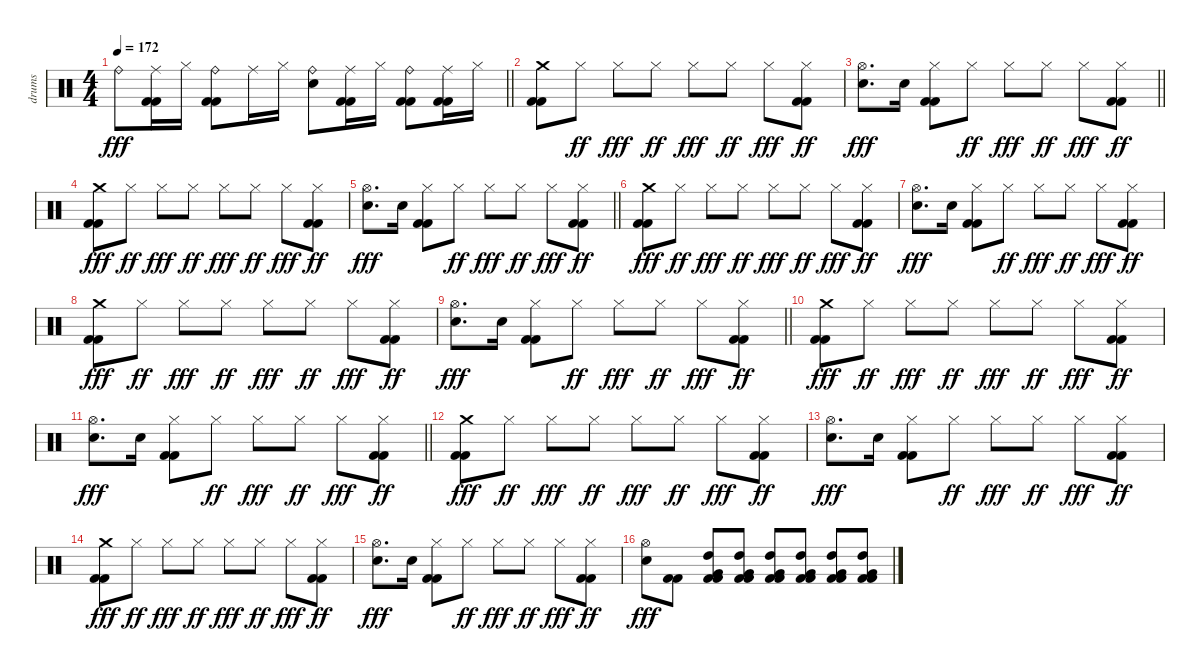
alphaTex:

\track ("drums" "drums") {instrument percussion}
\staff {score}
\articulation defaults
\ts (4 4)
\tempo 172
\clef neutral
\barLineRight lightlight
\ks c "Ride (bell)".8{dy fff}
("Kick (hit) 2" "Kick (hit) 2" "Ride (middle)").16 "Hi-Hat (closed)".16 ("Kick (hit) 2" "Kick (hit) 2" "Ride (bell)").8 "Ride (middle)".16 "Hi-Hat (closed)".16 ("Electric Snare (hit)" "Ride (bell)").8 ("Kick (hit) 2" "Kick (hit) 2" "Ride (middle)").16 "Hi-Hat (closed)".16 ("Kick (hit) 2" "Kick (hit) 2" "Ride (bell)").8 ("Kick (hit) 2" "Kick (hit) 2" "Ride (middle)").16 "Hi-Hat (closed)".16 |
("Kick (hit) 2" "Kick (hit) 2" "Crash medium (hit)").8 "Hi-Hat (closed)".8{dy ff} "Hi-Hat (closed)".8{dy fff} "Hi-Hat (closed)".8{dy ff} "Hi-Hat (closed)".8{dy fff} "Hi-Hat (closed)".8{dy ff} "Hi-Hat (closed)".8{dy fff} ("Kick (hit) 2" "Kick (hit) 2" "Hi-Hat (closed)").8{dy ff} |
\barLineRight lightlight
("Electric Snare (hit)" "Hi-Hat (open)").8{d dy fff} "Electric Snare (hit)".16 ("Kick (hit) 2" "Kick (hit) 2" "Hi-Hat (closed)").8 "Hi-Hat (closed)".8{dy ff} "Hi-Hat (closed)".8{dy fff} "Hi-Hat (closed)".8{dy ff} "Hi-Hat (closed)".8{dy fff} ("Kick (hit) 2" "Kick (hit) 2" "Hi-Hat (closed)").8{dy ff} |
("Kick (hit) 2" "Kick (hit) 2" "Crash medium (hit)").8{dy fff} "Hi-Hat (closed)".8{dy ff} "Hi-Hat (closed)".8{dy fff} "Hi-Hat (closed)".8{dy ff} "Hi-Hat (closed)".8{dy fff} "Hi-Hat (closed)".8{dy ff} "Hi-Hat (closed)".8{dy fff} ("Kick (hit) 2" "Kick (hit) 2" "Hi-Hat (closed)").8{dy ff} |
\barLineRight lightlight
("Electric Snare (hit)" "Hi-Hat (open)").8{d dy fff} "Electric Snare (hit)".16 ("Kick (hit) 2" "Kick (hit) 2" "Hi-Hat (closed)").8 "Hi-Hat (closed)".8{dy ff} "Hi-Hat (closed)".8{dy fff} "Hi-Hat (closed)".8{dy ff} "Hi-Hat (closed)".8{dy fff} ("Kick (hit) 2" "Kick (hit) 2" "Hi-Hat (closed)").8{dy ff} |
("Kick (hit) 2" "Kick (hit) 2" "Crash medium (hit)").8{dy fff} "Hi-Hat (closed)".8{dy ff} "Hi-Hat (closed)".8{dy fff} "Hi-Hat (closed)".8{dy ff} "Hi-Hat (closed)".8{dy fff} "Hi-Hat (closed)".8{dy ff} "Hi-Hat (closed)".8{dy fff} ("Kick (hit) 2" "Kick (hit) 2" "Hi-Hat (closed)").8{dy ff} |
("Electric Snare (hit)" "Hi-Hat (open)").8{d dy fff} "Electric Snare (hit)".16 ("Kick (hit) 2" "Kick (hit) 2" "Hi-Hat (closed)").8 "Hi-Hat (closed)".8{dy ff} "Hi-Hat (closed)".8{dy fff} "Hi-Hat (closed)".8{dy ff} "Hi-Hat (closed)".8{dy fff} ("Kick (hit) 2" "Kick (hit) 2" "Hi-Hat (closed)").8{dy ff} |
("Kick (hit) 2" "Kick (hit) 2" "Crash medium (hit)").8{dy fff} "Hi-Hat (closed)".8{dy ff} "Hi-Hat (closed)".8{dy fff} "Hi-Hat (closed)".8{dy ff} "Hi-Hat (closed)".8{dy fff} "Hi-Hat (closed)".8{dy ff} "Hi-Hat (closed)".8{dy fff} ("Kick (hit) 2" "Kick (hit) 2" "Hi-Hat (closed)").8{dy ff} |
\barLineRight lightlight
("Electric Snare (hit)" "Hi-Hat (open)").8{d dy fff} "Electric Snare (hit)".16 ("Kick (hit) 2" "Kick (hit) 2" "Hi-Hat (closed)").8 "Hi-Hat (closed)".8{dy ff} "Hi-Hat (closed)".8{dy fff} "Hi-Hat (closed)".8{dy ff} "Hi-Hat (closed)".8{dy fff} ("Kick (hit) 2" "Kick (hit) 2" "Hi-Hat (closed)").8{dy ff} |
("Kick (hit) 2" "Kick (hit) 2" "Crash medium (hit)").8{dy fff} "Hi-Hat (closed)".8{dy ff} "Hi-Hat (closed)".8{dy fff} "Hi-Hat (closed)".8{dy ff} "Hi-Hat (closed)".8{dy fff} "Hi-Hat (closed)".8{dy ff} "Hi-Hat (closed)".8{dy fff} ("Kick (hit) 2" "Kick (hit) 2" "Hi-Hat (closed)").8{dy ff} |
\barLineRight lightlight
("Electric Snare (hit)" "Hi-Hat (open)").8{d dy fff} "Electric Snare (hit)".16 ("Kick (hit) 2" "Kick (hit) 2" "Hi-Hat (closed)").8 "Hi-Hat (closed)".8{dy ff} "Hi-Hat (closed)".8{dy fff} "Hi-Hat (closed)".8{dy ff} "Hi-Hat (closed)".8{dy fff} ("Kick (hit) 2" "Kick (hit) 2" "Hi-Hat (closed)").8{dy ff} |
("Kick (hit) 2" "Kick (hit) 2" "Crash medium (hit)").8{dy fff} "Hi-Hat (closed)".8{dy ff} "Hi-Hat (closed)".8{dy fff} "Hi-Hat (closed)".8{dy ff} "Hi-Hat (closed)".8{dy fff} "Hi-Hat (closed)".8{dy ff} "Hi-Hat (closed)".8{dy fff} ("Kick (hit) 2" "Kick (hit) 2" "Hi-Hat (closed)").8{dy ff} |
("Electric Snare (hit)" "Hi-Hat (open)").8{d dy fff} "Electric Snare (hit)".16 ("Kick (hit) 2" "Kick (hit) 2" "Hi-Hat (closed)").8 "Hi-Hat (closed)".8{dy ff} "Hi-Hat (closed)".8{dy fff} "Hi-Hat (closed)".8{dy ff} "Hi-Hat (closed)".8{dy fff} ("Kick (hit) 2" "Kick (hit) 2" "Hi-Hat (closed)").8{dy ff} |
("Kick (hit) 2" "Kick (hit) 2" "Crash medium (hit)").8{dy fff} "Hi-Hat (closed)".8{dy ff} "Hi-Hat (closed)".8{dy fff} "Hi-Hat (closed)".8{dy ff} "Hi-Hat (closed)".8{dy fff} "Hi-Hat (closed)".8{dy ff} "Hi-Hat (closed)".8{dy fff} ("Kick (hit) 2" "Kick (hit) 2" "Hi-Hat (closed)").8{dy ff} |
("Electric Snare (hit)" "Hi-Hat (open)").8{d dy fff} "Electric Snare (hit)".16 ("Kick (hit) 2" "Kick (hit) 2" "Hi-Hat (closed)").8 "Hi-Hat (closed)".8{dy ff} "Hi-Hat (closed)".8{dy fff} "Hi-Hat (closed)".8{dy ff} "Hi-Hat (closed)".8{dy fff} ("Kick (hit) 2" "Kick (hit) 2" "Hi-Hat (closed)").8{dy ff} |
("Electric Snare (hit)" "Hi-Hat (open)").8{dy fff} ("Kick (hit) 2" "Kick (hit) 2").8 ("Kick (hit) 2" "Kick (hit) 2" "Very Low Tom (hit)" "High Tom (hit)").8 ("Kick (hit) 2" "Kick (hit) 2" "Very Low Tom (hit)" "High Tom (hit)").8 ("Kick (hit) 2" "Kick (hit) 2" "Very Low Tom (hit)" "High Tom (hit)").8 ("Kick (hit) 2" "Kick (hit) 2" "Very Low Tom (hit)" "High Tom (hit)").8 ("Kick (hit) 2" "Kick (hit) 2" "Very Low Tom (hit)" "High Tom (hit)").8 ("Kick (hit) 2" "Kick (hit) 2" "Very Low Tom (hit)" "High Tom (hit)").8
